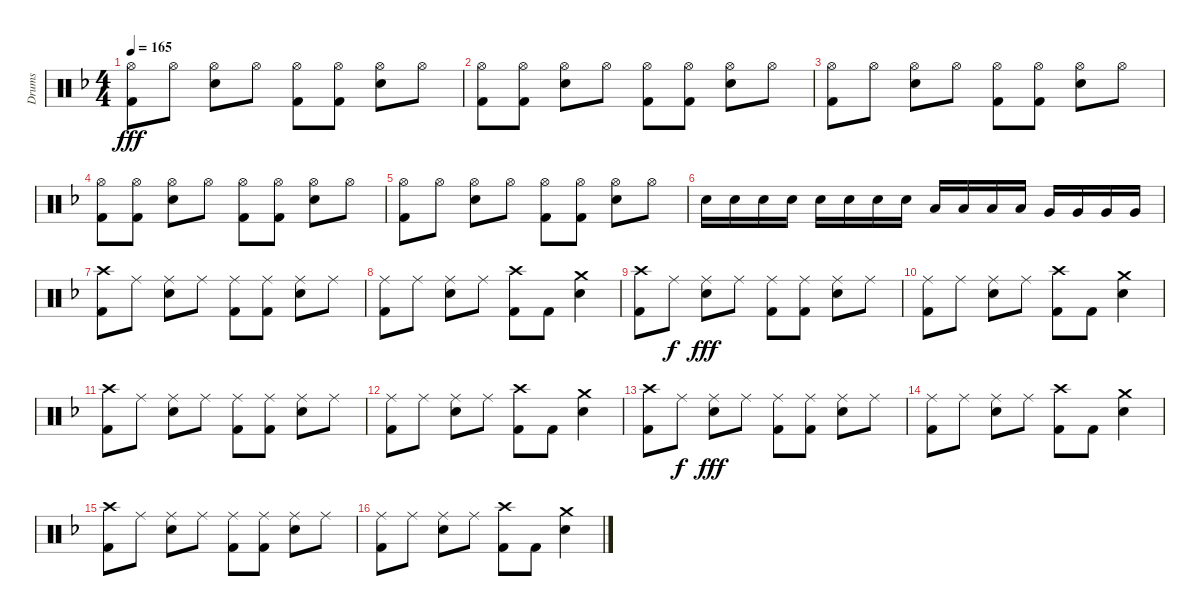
\track ("Drums" "Drums") {instrument percussion}
\staff {score}
\articulation defaults
\ts (4 4)
\tempo 165
\clef neutral
\ks f
("Hi-Hat (open)" "Kick (hit) 2").8{dy fff} "Hi-Hat (open)".8 ("Hi-Hat (open)" "Electric Snare (hit)").8 "Hi-Hat (open)".8 ("Hi-Hat (open)" "Kick (hit) 2").8 ("Hi-Hat (open)" "Kick (hit) 2").8 ("Hi-Hat (open)" "Electric Snare (hit)").8 "Hi-Hat (open)".8 |
("Hi-Hat (open)" "Kick (hit) 2").8 ("Hi-Hat (open)" "Kick (hit) 2").8 ("Hi-Hat (open)" "Electric Snare (hit)").8 "Hi-Hat (open)".8 ("Hi-Hat (open)" "Kick (hit) 2").8 ("Hi-Hat (open)" "Kick (hit) 2").8 ("Hi-Hat (open)" "Electric Snare (hit)").8 "Hi-Hat (open)".8 |
("Hi-Hat (open)" "Kick (hit) 2").8 "Hi-Hat (open)".8 ("Hi-Hat (open)" "Electric Snare (hit)").8 "Hi-Hat (open)".8 ("Hi-Hat (open)" "Kick (hit) 2").8 ("Hi-Hat (open)" "Kick (hit) 2").8 ("Hi-Hat (open)" "Electric Snare (hit)").8 "Hi-Hat (open)".8 |
("Hi-Hat (open)" "Kick (hit) 2").8 ("Hi-Hat (open)" "Kick (hit) 2").8 ("Hi-Hat (open)" "Electric Snare (hit)").8 "Hi-Hat (open)".8 ("Hi-Hat (open)" "Kick (hit) 2").8 ("Hi-Hat (open)" "Kick (hit) 2").8 ("Hi-Hat (open)" "Electric Snare (hit)").8 "Hi-Hat (open)".8 |
("Hi-Hat (open)" "Kick (hit) 2").8 "Hi-Hat (open)".8 ("Hi-Hat (open)" "Electric Snare (hit)").8 "Hi-Hat (open)".8 ("Hi-Hat (open)" "Kick (hit) 2").8 ("Hi-Hat (open)" "Kick (hit) 2").8 ("Hi-Hat (open)" "Electric Snare (hit)").8 "Hi-Hat (open)".8 |
"Electric Snare (hit)".16 "Electric Snare (hit)".16 "Electric Snare (hit)".16 "Electric Snare (hit)".16 "Electric Snare (hit)".16 "Electric Snare (hit)".16 "Electric Snare (hit)".16 "Electric Snare (hit)".16 "Low Tom (hit)".16 "Low Tom (hit)".16 "Low Tom (hit)".16 "Low Tom (hit)".16 "Very Low Tom (hit)".16 "Very Low Tom (hit)".16 "Very Low Tom (hit)".16 "Very Low Tom (hit)".16 |
("Crash high (hit)" "Kick (hit) 2").8 "Ride (middle)".8 ("Ride (middle)" "Electric Snare (hit)").8 "Ride (middle)".8 ("Ride (middle)" "Kick (hit) 2").8 ("Ride (middle)" "Kick (hit) 2").8 ("Ride (middle)" "Electric Snare (hit)").8 "Ride (middle)".8 |
("Ride (middle)" "Kick (hit) 2").8 "Ride (middle)".8 ("Ride (middle)" "Electric Snare (hit)").8 "Ride (middle)".8 ("Crash high (hit)" "Kick (hit) 2").8 "Kick (hit) 2".8 ("Crash medium (hit)" "Electric Snare (hit)").4 |
("Crash high (hit)" "Kick (hit) 2").8 "Ride (middle)".8{dy f} ("Ride (middle)" "Electric Snare (hit)").8{dy fff} "Ride (middle)".8 ("Ride (middle)" "Kick (hit) 2").8 ("Ride (middle)" "Kick (hit) 2").8 ("Ride (middle)" "Electric Snare (hit)").8 "Ride (middle)".8 |
("Ride (middle)" "Kick (hit) 2").8 "Ride (middle)".8 ("Ride (middle)" "Electric Snare (hit)").8 "Ride (middle)".8 ("Crash high (hit)" "Kick (hit) 2").8 "Kick (hit) 2".8 ("Crash medium (hit)" "Electric Snare (hit)").4 |
("Crash high (hit)" "Kick (hit) 2").8 "Ride (middle)".8 ("Ride (middle)" "Electric Snare (hit)").8 "Ride (middle)".8 ("Ride (middle)" "Kick (hit) 2").8 ("Ride (middle)" "Kick (hit) 2").8 ("Ride (middle)" "Electric Snare (hit)").8 "Ride (middle)".8 |
("Ride (middle)" "Kick (hit) 2").8 "Ride (middle)".8 ("Ride (middle)" "Electric Snare (hit)").8 "Ride (middle)".8 ("Crash high (hit)" "Kick (hit) 2").8 "Kick (hit) 2".8 ("Crash medium (hit)" "Electric Snare (hit)").4 |
("Crash high (hit)" "Kick (hit) 2").8 "Ride (middle)".8{dy f} ("Ride (middle)" "Electric Snare (hit)").8{dy fff} "Ride (middle)".8 ("Ride (middle)" "Kick (hit) 2").8 ("Ride (middle)" "Kick (hit) 2").8 ("Ride (middle)" "Electric Snare (hit)").8 "Ride (middle)".8 |
("Ride (middle)" "Kick (hit) 2").8 "Ride (middle)".8 ("Ride (middle)" "Electric Snare (hit)").8 "Ride (middle)".8 ("Crash high (hit)" "Kick (hit) 2").8 "Kick (hit) 2".8 ("Crash medium (hit)" "Electric Snare (hit)").4 |
("Crash high (hit)" "Kick (hit) 2").8 "Ride (middle)".8 ("Ride (middle)" "Electric Snare (hit)").8 "Ride (middle)".8 ("Ride (middle)" "Kick (hit) 2").8 ("Ride (middle)" "Kick (hit) 2").8 ("Ride (middle)" "Electric Snare (hit)").8 "Ride (middle)".8 |
("Ride (middle)" "Kick (hit) 2").8 "Ride (middle)".8 ("Ride (middle)" "Electric Snare (hit)").8 "Ride (middle)".8 ("Crash high (hit)" "Kick (hit) 2").8 "Kick (hit) 2".8 ("Crash medium (hit)" "Electric Snare (hit)").4
